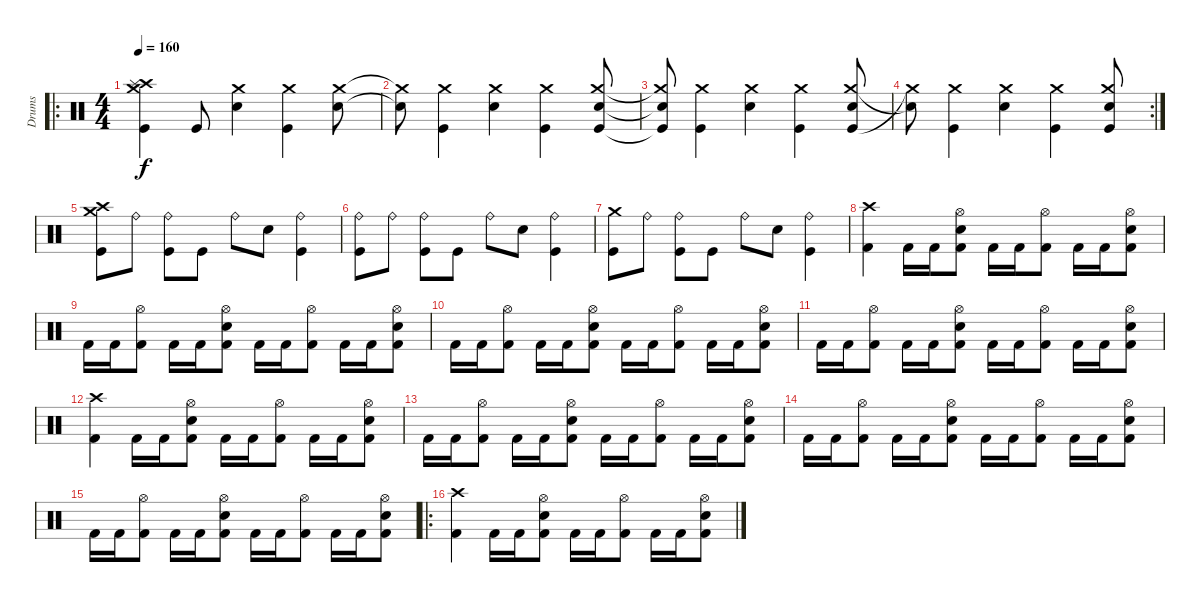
\track ("Drums" "Drums") {instrument percussion}
\staff {score}
\articulation defaults
\ro
\ts (4 4)
\tempo 160
\clef neutral
\ks c
("Kick (hit)" "Crash medium (hit)" "Crash high (hit)" "Splash (hit)").4{dy f} "Kick (hit)".8 ("Crash medium (hit)" "Electric Snare (hit)").4 ("Kick (hit)" "Crash medium (hit)").4 ("Crash medium (hit)" "Electric Snare (hit)").8 |
("Crash medium (hit)"{t} "Snare (hit)"{t}).8 ("Kick (hit)" "Crash medium (hit)").4 ("Crash medium (hit)" "Electric Snare (hit)").4 ("Kick (hit)" "Crash medium (hit)").4 ("Kick (hit)" "Crash medium (hit)" "Electric Snare (hit)").8 |
("Kick (hit)"{t} "Crash medium (hit)"{t} "Snare (hit)"{t}).8 ("Kick (hit)" "Crash medium (hit)").4 ("Crash medium (hit)" "Electric Snare (hit)").4 ("Kick (hit)" "Crash medium (hit)").4 ("Kick (hit)" "Crash medium (hit)" "Electric Snare (hit)").8 |
\rc 2
("Crash medium (hit)"{t} "Snare (hit)"{t}).8 ("Kick (hit)" "Crash medium (hit)").4 ("Crash medium (hit)" "Electric Snare (hit)").4 ("Kick (hit)" "Crash medium (hit)").4 ("Kick (hit)" "Crash medium (hit)" "Electric Snare (hit)").8 |
("Kick (hit)" "Crash high (hit)" "Crash medium (hit)").8 "Ride (bell)".8 ("Kick (hit)" "Ride (bell)").8 "Kick (hit)".8 "Ride (bell)".8 "Electric Snare (hit)".8 ("Kick (hit)" "Ride (bell)").4 |
("Kick (hit)" "Ride (bell)").8 "Ride (bell)".8 ("Kick (hit)" "Ride (bell)").8 "Kick (hit)".8 "Ride (bell)".8 "Electric Snare (hit)".8 ("Kick (hit)" "Ride (bell)").4 |
("Kick (hit)" "Crash medium (hit)").8 "Ride (bell)".8 ("Kick (hit)" "Ride (bell)").8 "Kick (hit)".8 "Ride (bell)".8 "Electric Snare (hit)".8 ("Kick (hit)" "Ride (bell)").4 |
("Crash high (hit)" "Kick (hit) 2").4 "Kick (hit) 2".16 "Kick (hit) 2".16 ("Hi-Hat (open)" "Electric Snare (hit)" "Kick (hit) 2").8 "Kick (hit) 2".16 "Kick (hit) 2".16 ("Hi-Hat (open)" "Kick (hit) 2").8 "Kick (hit) 2".16 "Kick (hit) 2".16 ("Hi-Hat (open)" "Electric Snare (hit)" "Kick (hit) 2").8 |
"Kick (hit) 2".16 "Kick (hit) 2".16 ("Hi-Hat (open)" "Kick (hit) 2").8 "Kick (hit) 2".16 "Kick (hit) 2".16 ("Hi-Hat (open)" "Electric Snare (hit)" "Kick (hit) 2").8 "Kick (hit) 2".16 "Kick (hit) 2".16 ("Hi-Hat (open)" "Kick (hit) 2").8 "Kick (hit) 2".16 "Kick (hit) 2".16 ("Hi-Hat (open)" "Electric Snare (hit)" "Kick (hit) 2").8 |
"Kick (hit) 2".16 "Kick (hit) 2".16 ("Hi-Hat (open)" "Kick (hit) 2").8 "Kick (hit) 2".16 "Kick (hit) 2".16 ("Hi-Hat (open)" "Electric Snare (hit)" "Kick (hit) 2").8 "Kick (hit) 2".16 "Kick (hit) 2".16 ("Hi-Hat (open)" "Kick (hit) 2").8 "Kick (hit) 2".16 "Kick (hit) 2".16 ("Hi-Hat (open)" "Electric Snare (hit)" "Kick (hit) 2").8 |
"Kick (hit) 2".16 "Kick (hit) 2".16 ("Hi-Hat (open)" "Kick (hit) 2").8 "Kick (hit) 2".16 "Kick (hit) 2".16 ("Hi-Hat (open)" "Electric Snare (hit)" "Kick (hit) 2").8 "Kick (hit) 2".16 "Kick (hit) 2".16 ("Hi-Hat (open)" "Kick (hit) 2").8 "Kick (hit) 2".16 "Kick (hit) 2".16 ("Hi-Hat (open)" "Electric Snare (hit)" "Kick (hit) 2").8 |
("Crash high (hit)" "Kick (hit) 2").4 "Kick (hit) 2".16 "Kick (hit) 2".16 ("Hi-Hat (open)" "Electric Snare (hit)" "Kick (hit) 2").8 "Kick (hit) 2".16 "Kick (hit) 2".16 ("Hi-Hat (open)" "Kick (hit) 2").8 "Kick (hit) 2".16 "Kick (hit) 2".16 ("Hi-Hat (open)" "Electric Snare (hit)" "Kick (hit) 2").8 |
"Kick (hit) 2".16 "Kick (hit) 2".16 ("Hi-Hat (open)" "Kick (hit) 2").8 "Kick (hit) 2".16 "Kick (hit) 2".16 ("Hi-Hat (open)" "Electric Snare (hit)" "Kick (hit) 2").8 "Kick (hit) 2".16 "Kick (hit) 2".16 ("Hi-Hat (open)" "Kick (hit) 2").8 "Kick (hit) 2".16 "Kick (hit) 2".16 ("Hi-Hat (open)" "Electric Snare (hit)" "Kick (hit) 2").8 |
"Kick (hit) 2".16 "Kick (hit) 2".16 ("Hi-Hat (open)" "Kick (hit) 2").8 "Kick (hit) 2".16 "Kick (hit) 2".16 ("Hi-Hat (open)" "Electric Snare (hit)" "Kick (hit) 2").8 "Kick (hit) 2".16 "Kick (hit) 2".16 ("Hi-Hat (open)" "Kick (hit) 2").8 "Kick (hit) 2".16 "Kick (hit) 2".16 ("Hi-Hat (open)" "Electric Snare (hit)" "Kick (hit) 2").8 |
"Kick (hit) 2".16 "Kick (hit) 2".16 ("Hi-Hat (open)" "Kick (hit) 2").8 "Kick (hit) 2".16 "Kick (hit) 2".16 ("Hi-Hat (open)" "Electric Snare (hit)" "Kick (hit) 2").8 "Kick (hit) 2".16 "Kick (hit) 2".16 ("Hi-Hat (open)" "Kick (hit) 2").8 "Kick (hit) 2".16 "Kick (hit) 2".16 ("Hi-Hat (open)" "Electric Snare (hit)" "Kick (hit) 2").8 |
\ro
("Crash high (hit)" "Kick (hit) 2").4 "Kick (hit) 2".16 "Kick (hit) 2".16 ("Hi-Hat (open)" "Electric Snare (hit)" "Kick (hit) 2").8 "Kick (hit) 2".16 "Kick (hit) 2".16 ("Hi-Hat (open)" "Kick (hit) 2").8 "Kick (hit) 2".16 "Kick (hit) 2".16 ("Hi-Hat (open)" "Electric Snare (hit)" "Kick (hit) 2").8
